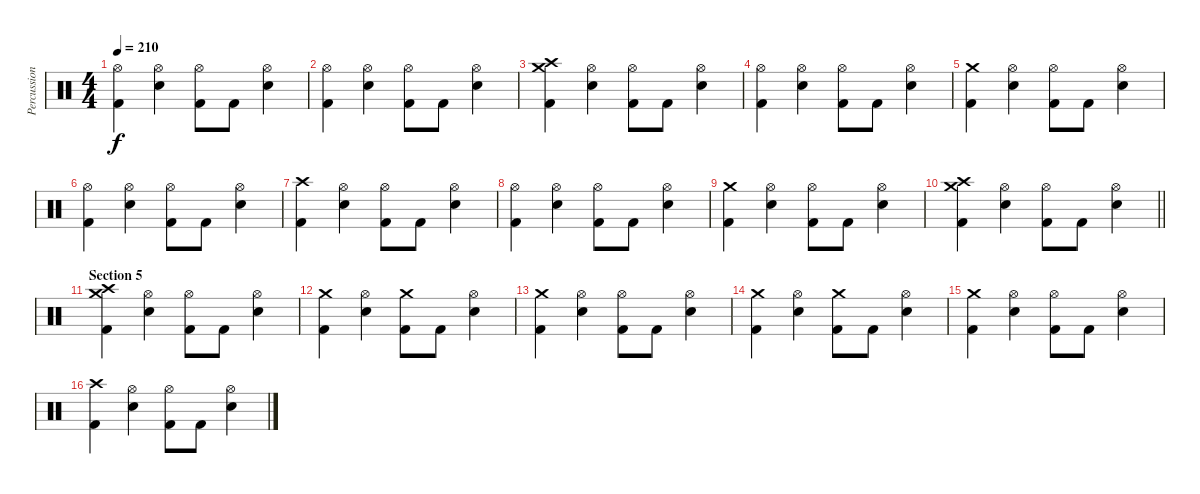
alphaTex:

\track ("Percussion" "Percussion") {instrument percussion}
\staff {score}
\articulation defaults
\ts (4 4)
\tempo 210
\clef neutral
\ks c
("Kick (hit) 2" "Hi-Hat (open)").4{dy f} ("Electric Snare (hit)" "Hi-Hat (open)").4 ("Kick (hit) 2" "Hi-Hat (open)").8 "Kick (hit) 2".8 ("Electric Snare (hit)" "Hi-Hat (open)").4 |
("Kick (hit) 2" "Hi-Hat (open)").4 ("Electric Snare (hit)" "Hi-Hat (open)").4 ("Kick (hit) 2" "Hi-Hat (open)").8 "Kick (hit) 2".8 ("Electric Snare (hit)" "Hi-Hat (open)").4 |
("Kick (hit) 2" "Crash medium (hit)" "Crash high (hit)").4 ("Electric Snare (hit)" "Hi-Hat (open)").4 ("Kick (hit) 2" "Hi-Hat (open)").8 "Kick (hit) 2".8 ("Electric Snare (hit)" "Hi-Hat (open)").4 |
("Kick (hit) 2" "Hi-Hat (open)").4 ("Electric Snare (hit)" "Hi-Hat (open)").4 ("Kick (hit) 2" "Hi-Hat (open)").8 "Kick (hit) 2".8 ("Electric Snare (hit)" "Hi-Hat (open)").4 |
("Kick (hit) 2" "Crash medium (hit)").4 ("Electric Snare (hit)" "Hi-Hat (open)").4 ("Kick (hit) 2" "Hi-Hat (open)").8 "Kick (hit) 2".8 ("Electric Snare (hit)" "Hi-Hat (open)").4 |
("Kick (hit) 2" "Hi-Hat (open)").4 ("Electric Snare (hit)" "Hi-Hat (open)").4 ("Kick (hit) 2" "Hi-Hat (open)").8 "Kick (hit) 2".8 ("Electric Snare (hit)" "Hi-Hat (open)").4 |
("Kick (hit) 2" "Crash high (hit)").4 ("Electric Snare (hit)" "Hi-Hat (open)").4 ("Kick (hit) 2" "Hi-Hat (open)").8 "Kick (hit) 2".8 ("Electric Snare (hit)" "Hi-Hat (open)").4 |
("Kick (hit) 2" "Hi-Hat (open)").4 ("Electric Snare (hit)" "Hi-Hat (open)").4 ("Kick (hit) 2" "Hi-Hat (open)").8 "Kick (hit) 2".8 ("Electric Snare (hit)" "Hi-Hat (open)").4 |
("Kick (hit) 2" "Crash medium (hit)").4 ("Electric Snare (hit)" "Hi-Hat (open)").4 ("Kick (hit) 2" "Hi-Hat (open)").8 "Kick (hit) 2".8 ("Electric Snare (hit)" "Hi-Hat (open)").4 |
\barLineRight lightlight
("Kick (hit) 2" "Crash medium (hit)" "Crash high (hit)").4 ("Electric Snare (hit)" "Hi-Hat (open)").4 ("Kick (hit) 2" "Hi-Hat (open)").8 "Kick (hit) 2".8 ("Electric Snare (hit)" "Hi-Hat (open)").4 |
\section ("" "Section 5")
("Kick (hit) 2" "Crash high (hit)" "Crash medium (hit)").4 ("Electric Snare (hit)" "Hi-Hat (open)").4 ("Kick (hit) 2" "Hi-Hat (open)").8 "Kick (hit) 2".8 ("Electric Snare (hit)" "Hi-Hat (open)").4 |
("Kick (hit) 2" "Crash medium (hit)").4 ("Electric Snare (hit)" "Hi-Hat (open)").4 ("Kick (hit) 2" "Crash medium (hit)").8 "Kick (hit) 2".8 ("Electric Snare (hit)" "Hi-Hat (open)").4 |
("Kick (hit) 2" "Crash medium (hit)").4 ("Electric Snare (hit)" "Hi-Hat (open)").4 ("Kick (hit) 2" "Hi-Hat (open)").8 "Kick (hit) 2".8 ("Electric Snare (hit)" "Hi-Hat (open)").4 |
("Kick (hit) 2" "Crash medium (hit)").4 ("Electric Snare (hit)" "Hi-Hat (open)").4 ("Kick (hit) 2" "Crash medium (hit)").8 "Kick (hit) 2".8 ("Electric Snare (hit)" "Hi-Hat (open)").4 |
("Kick (hit) 2" "Crash medium (hit)").4 ("Electric Snare (hit)" "Hi-Hat (open)").4 ("Kick (hit) 2" "Hi-Hat (open)").8 "Kick (hit) 2".8 ("Electric Snare (hit)" "Hi-Hat (open)").4 |
("Kick (hit) 2" "Crash high (hit)").4 ("Electric Snare (hit)" "Hi-Hat (open)").4 ("Kick (hit) 2" "Hi-Hat (open)").8 "Kick (hit) 2".8 ("Electric Snare (hit)" "Hi-Hat (open)").4
